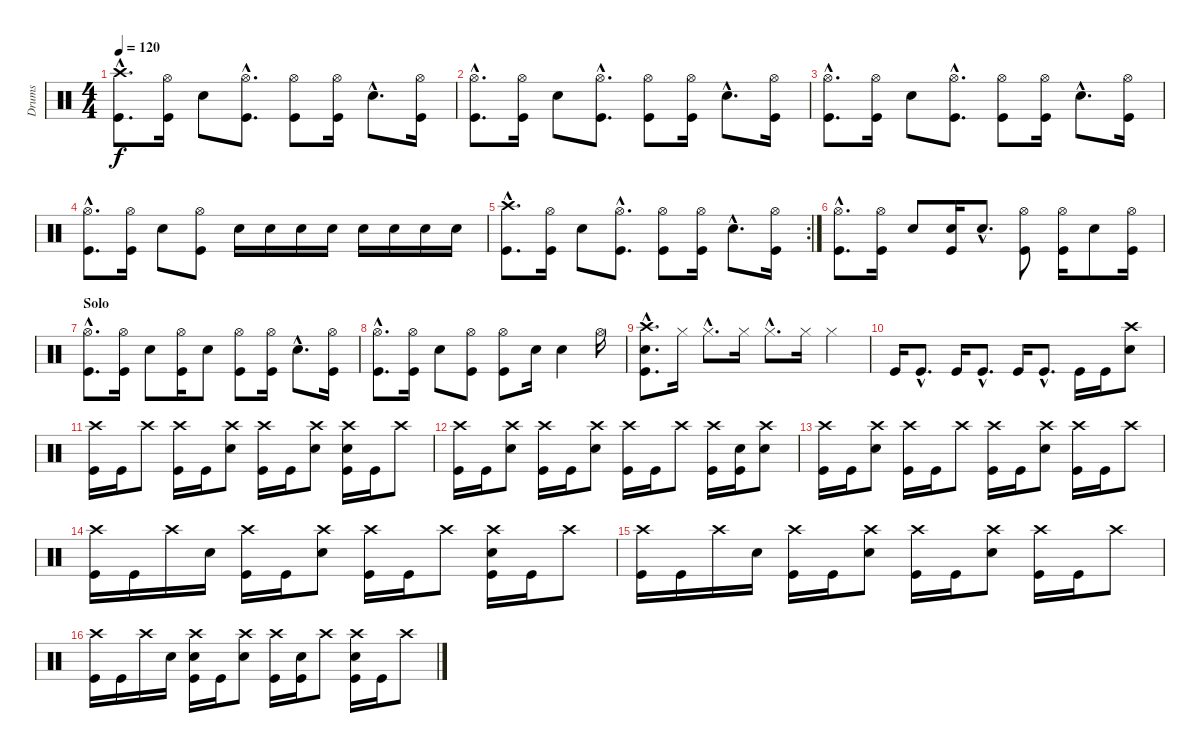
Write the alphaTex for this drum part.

\track ("Drums " "Drums ") {instrument percussion}
\staff {score}
\articulation defaults
\ts (4 4)
\tempo 120
\clef neutral
\ks c
("Crash high (hit)"{hac} "Kick (hit)"{hac}).8{d dy f} ("Hi-Hat (open)" "Kick (hit)").16 "Snare (hit) 2".8 ("Hi-Hat (open)"{hac} "Kick (hit)"{hac}).8{d} ("Hi-Hat (open)" "Kick (hit)").8 ("Hi-Hat (open)" "Kick (hit)").16 "Snare (hit) 2"{hac}.8{d} ("Hi-Hat (open)" "Kick (hit)").16 |
("Hi-Hat (open)"{hac} "Kick (hit)"{hac}).8{d} ("Hi-Hat (open)" "Kick (hit)").16 "Snare (hit) 2".8 ("Hi-Hat (open)"{hac} "Kick (hit)"{hac}).8{d} ("Hi-Hat (open)" "Kick (hit)").8 ("Hi-Hat (open)" "Kick (hit)").16 "Snare (hit) 2"{hac}.8{d} ("Hi-Hat (open)" "Kick (hit)").16 |
("Hi-Hat (open)"{hac} "Kick (hit)"{hac}).8{d} ("Hi-Hat (open)" "Kick (hit)").16 "Snare (hit) 2".8 ("Hi-Hat (open)"{hac} "Kick (hit)"{hac}).8{d} ("Hi-Hat (open)" "Kick (hit)").8 ("Hi-Hat (open)" "Kick (hit)").16 "Snare (hit) 2"{hac}.8{d} ("Hi-Hat (open)" "Kick (hit)").16 |
("Hi-Hat (open)"{hac} "Kick (hit)"{hac}).8{d} ("Hi-Hat (open)" "Kick (hit)").16 "Snare (hit) 2".8 ("Hi-Hat (open)" "Kick (hit)").8 "Snare (hit) 2".16 "Snare (hit) 2".16 "Snare (hit) 2".16 "Snare (hit) 2".16 "Snare (hit) 2".16 "Snare (hit) 2".16 "Snare (hit) 2".16 "Snare (hit) 2".16 |
\rc 2
("Crash high (hit)"{hac} "Kick (hit)"{hac}).8{d} ("Hi-Hat (open)" "Kick (hit)").16 "Snare (hit) 2".8 ("Hi-Hat (open)"{hac} "Kick (hit)"{hac}).8{d} ("Hi-Hat (open)" "Kick (hit)").8 ("Hi-Hat (open)" "Kick (hit)").16 "Snare (hit) 2"{hac}.8{d} ("Hi-Hat (open)" "Kick (hit)").16 |
("Hi-Hat (open)"{hac} "Kick (hit)"{hac}).8{d} ("Hi-Hat (open)" "Kick (hit)").16 "Snare (hit) 2".8 ("Snare (hit) 2" "Kick (hit)").16 "Snare (hit) 2"{hac}.8{d} ("Hi-Hat (open)" "Kick (hit)").8 ("Hi-Hat (open)" "Kick (hit)").16 "Snare (hit) 2".8 ("Hi-Hat (open)" "Kick (hit)").16 |
\section ("" "Solo")
("Hi-Hat (open)"{hac} "Kick (hit)"{hac}).8{d} ("Hi-Hat (open)" "Kick (hit)").16 "Snare (hit) 2".8 ("Hi-Hat (open)" "Kick (hit)").16 "Snare (hit) 2".8 ("Hi-Hat (open)" "Kick (hit)").8 ("Hi-Hat (open)" "Kick (hit)").16 "Snare (hit) 2"{hac}.8{d} ("Hi-Hat (open)" "Kick (hit)").16 |
("Hi-Hat (open)"{hac} "Kick (hit)"{hac}).8{d} ("Hi-Hat (open)" "Kick (hit)").16 "Snare (hit) 2".8 ("Hi-Hat (open)" "Kick (hit)").8 ("Hi-Hat (open)" "Kick (hit)").8 "Snare (hit) 2".16 "Snare (hit) 2".4 "Hi-Hat (open)".16 |
("Crash high (hit)"{hac} "Snare (hit) 2"{hac} "Kick (hit)"{hac}).8{d} "Hi-Hat (closed)".16 "Hi-Hat (closed)"{hac}.8{d} "Hi-Hat (closed)".16 "Hi-Hat (closed)"{hac}.8{d} "Hi-Hat (closed)".16 "Hi-Hat (closed)".4 |
"Kick (hit)".16 "Kick (hit)"{hac}.8{d} "Kick (hit)".16 "Kick (hit)"{hac}.8{d} "Kick (hit)".16 "Kick (hit)"{hac}.8{d} "Kick (hit)".16 "Kick (hit)".16 ("Crash high (hit)" "Snare (hit) 2").8 |
("Crash high (hit)" "Kick (hit)").16 "Kick (hit)".16 "Crash high (hit)".8 ("Crash high (hit)" "Kick (hit)").16 "Kick (hit)".16 ("Crash high (hit)" "Snare (hit) 2").8 ("Crash high (hit)" "Kick (hit)").16 "Kick (hit)".16 ("Crash high (hit)" "Snare (hit) 2").8 ("Crash high (hit)" "Snare (hit) 2" "Kick (hit)").16 "Kick (hit)".16 "Crash high (hit)".8 |
("Crash high (hit)" "Kick (hit)").16 "Kick (hit)".16 ("Crash high (hit)" "Snare (hit) 2").8 ("Crash high (hit)" "Kick (hit)").16 "Kick (hit)".16 ("Crash high (hit)" "Snare (hit) 2").8 ("Crash high (hit)" "Kick (hit)").16 "Kick (hit)".16 "Crash high (hit)".8 ("Crash high (hit)" "Kick (hit)").16 ("Snare (hit) 2" "Kick (hit)").16 ("Crash high (hit)" "Snare (hit) 2").8 |
("Crash high (hit)" "Kick (hit)").16 "Kick (hit)".16 ("Crash high (hit)" "Snare (hit) 2").8 ("Crash high (hit)" "Kick (hit)").16 "Kick (hit)".16 "Crash high (hit)".8 ("Crash high (hit)" "Kick (hit)").16 "Kick (hit)".16 ("Crash high (hit)" "Snare (hit) 2").8 ("Crash high (hit)" "Kick (hit)").16 "Kick (hit)".16 "Crash high (hit)".8 |
("Crash high (hit)" "Kick (hit)").16 "Kick (hit)".16 "Crash high (hit)".16 "Snare (hit) 2".16 ("Crash high (hit)" "Kick (hit)").16 "Kick (hit)".16 ("Crash high (hit)" "Snare (hit) 2").8 ("Crash high (hit)" "Kick (hit)").16 "Kick (hit)".16 "Crash high (hit)".8 ("Crash high (hit)" "Snare (hit) 2" "Kick (hit)").16 "Kick (hit)".16 "Crash high (hit)".8 |
("Crash high (hit)" "Kick (hit)").16 "Kick (hit)".16 "Crash high (hit)".16 "Snare (hit) 2".16 ("Crash high (hit)" "Kick (hit)").16 "Kick (hit)".16 ("Crash high (hit)" "Snare (hit) 2").8 ("Crash high (hit)" "Kick (hit)").16 "Kick (hit)".16 ("Crash high (hit)" "Snare (hit) 2").8 ("Crash high (hit)" "Kick (hit)").16 "Kick (hit)".16 "Crash high (hit)".8 |
("Crash high (hit)" "Kick (hit)").16 "Kick (hit)".16 "Crash high (hit)".16 "Snare (hit) 2".16 ("Crash high (hit)" "Snare (hit) 2" "Kick (hit)").16 "Kick (hit)".16 ("Crash high (hit)" "Snare (hit) 2").8 ("Crash high (hit)" "Kick (hit)").16 ("Snare (hit) 2" "Kick (hit)").16 "Crash high (hit)".8 ("Crash high (hit)" "Snare (hit) 2" "Kick (hit)").16 "Kick (hit)".16 "Crash high (hit)".8
